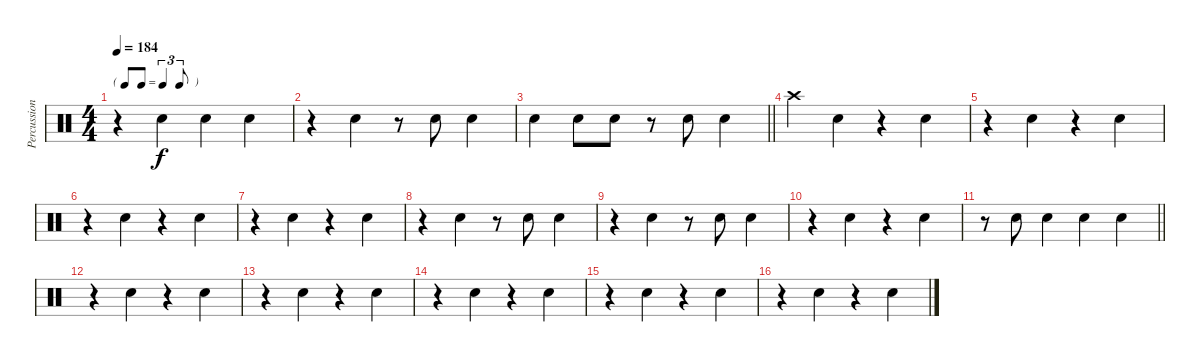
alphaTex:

\track ("Percussion" "Percussion") {instrument percussion}
\staff {score}
\articulation defaults
\ts (4 4)
\tf triplet8th
\tempo 184
\clef neutral
\ks c
r.4{dy f} "Snare (hit) 2".4 "Snare (hit) 2".4 "Snare (hit) 2".4 |
r.4 "Snare (hit) 2".4 r.8 "Snare (hit) 2".8 "Snare (hit) 2".4 |
\barLineRight lightlight "Snare (hit) 2".4 "Snare (hit) 2".8 "Snare (hit) 2".8
r.8 "Snare (hit) 2".8 "Snare (hit) 2".4 |
"Crash high (hit)".4 "Snare (hit) 2".4 r.4 "Snare (hit) 2".4 |
r.4 "Snare (hit) 2".4 r.4 "Snare (hit) 2".4 |
r.4 "Snare (hit) 2".4 r.4 "Snare (hit) 2".4 |
r.4 "Snare (hit) 2".4 r.4 "Snare (hit) 2".4 |
r.4 "Snare (hit) 2".4 r.8 "Snare (hit) 2".8 "Snare (hit) 2".4 |
r.4 "Snare (hit) 2".4 r.8 "Snare (hit) 2".8 "Snare (hit) 2".4 |
r.4 "Snare (hit) 2".4 r.4 "Snare (hit) 2".4 |
\barLineRight lightlight
r.8 "Snare (hit) 2".8 "Snare (hit) 2".4 "Snare (hit) 2".4 "Snare (hit) 2".4 |
r.4 "Snare (hit) 2".4 r.4 "Snare (hit) 2".4 |
r.4 "Snare (hit) 2".4 r.4 "Snare (hit) 2".4 |
r.4 "Snare (hit) 2".4 r.4 "Snare (hit) 2".4 |
r.4 "Snare (hit) 2".4 r.4 "Snare (hit) 2".4 |
r.4 "Snare (hit) 2".4 r.4 "Snare (hit) 2".4
